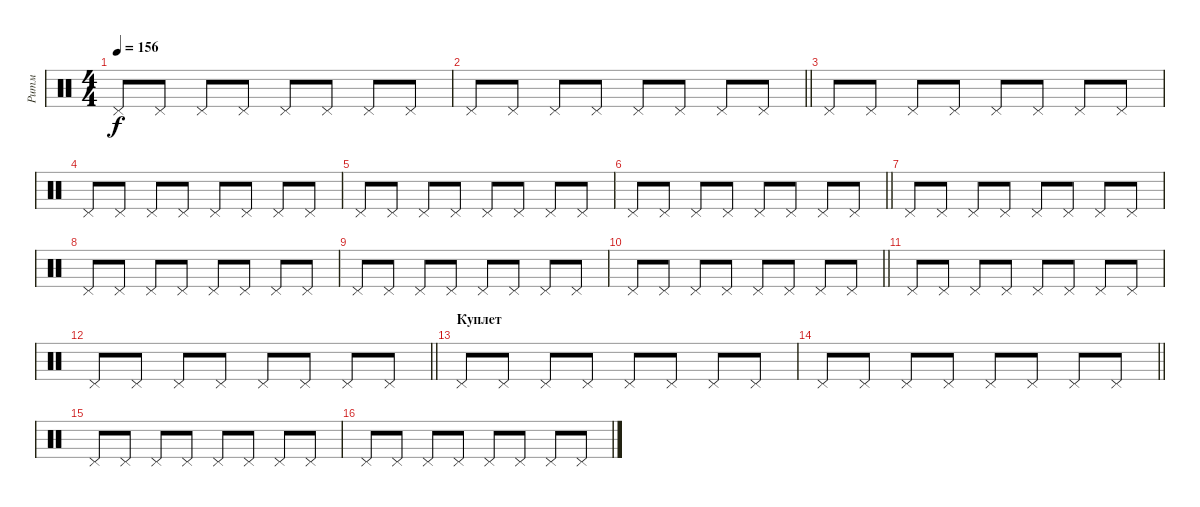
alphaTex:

\track ("Ритм" "Ритм") {instrument percussion}
\staff {score}
\articulation defaults
\ts (4 4)
\tempo 156
\clef neutral
\ks c "Pedal Hi-Hat (hit)".8{dy f} "Pedal Hi-Hat (hit)".8 "Pedal Hi-Hat (hit)".8 "Pedal Hi-Hat (hit)".8 "Pedal Hi-Hat (hit)".8 "Pedal Hi-Hat (hit)".8 "Pedal Hi-Hat (hit)".8 "Pedal Hi-Hat (hit)".8
|
\barLineRight lightlight "Pedal Hi-Hat (hit)".8 "Pedal Hi-Hat (hit)".8 "Pedal Hi-Hat (hit)".8 "Pedal Hi-Hat (hit)".8 "Pedal Hi-Hat (hit)".8 "Pedal Hi-Hat (hit)".8 "Pedal Hi-Hat (hit)".8 "Pedal Hi-Hat (hit)".8
|
"Pedal Hi-Hat (hit)".8 "Pedal Hi-Hat (hit)".8 "Pedal Hi-Hat (hit)".8 "Pedal Hi-Hat (hit)".8 "Pedal Hi-Hat (hit)".8 "Pedal Hi-Hat (hit)".8 "Pedal Hi-Hat (hit)".8 "Pedal Hi-Hat (hit)".8 |
"Pedal Hi-Hat (hit)".8 "Pedal Hi-Hat (hit)".8 "Pedal Hi-Hat (hit)".8 "Pedal Hi-Hat (hit)".8 "Pedal Hi-Hat (hit)".8 "Pedal Hi-Hat (hit)".8 "Pedal Hi-Hat (hit)".8 "Pedal Hi-Hat (hit)".8 |
"Pedal Hi-Hat (hit)".8 "Pedal Hi-Hat (hit)".8 "Pedal Hi-Hat (hit)".8 "Pedal Hi-Hat (hit)".8 "Pedal Hi-Hat (hit)".8 "Pedal Hi-Hat (hit)".8 "Pedal Hi-Hat (hit)".8 "Pedal Hi-Hat (hit)".8 |
\barLineRight lightlight "Pedal Hi-Hat (hit)".8 "Pedal Hi-Hat (hit)".8 "Pedal Hi-Hat (hit)".8 "Pedal Hi-Hat (hit)".8 "Pedal Hi-Hat (hit)".8 "Pedal Hi-Hat (hit)".8 "Pedal Hi-Hat (hit)".8 "Pedal Hi-Hat (hit)".8
|
"Pedal Hi-Hat (hit)".8 "Pedal Hi-Hat (hit)".8 "Pedal Hi-Hat (hit)".8 "Pedal Hi-Hat (hit)".8 "Pedal Hi-Hat (hit)".8 "Pedal Hi-Hat (hit)".8 "Pedal Hi-Hat (hit)".8 "Pedal Hi-Hat (hit)".8 |
"Pedal Hi-Hat (hit)".8 "Pedal Hi-Hat (hit)".8 "Pedal Hi-Hat (hit)".8 "Pedal Hi-Hat (hit)".8 "Pedal Hi-Hat (hit)".8 "Pedal Hi-Hat (hit)".8 "Pedal Hi-Hat (hit)".8 "Pedal Hi-Hat (hit)".8 |
"Pedal Hi-Hat (hit)".8 "Pedal Hi-Hat (hit)".8 "Pedal Hi-Hat (hit)".8 "Pedal Hi-Hat (hit)".8 "Pedal Hi-Hat (hit)".8 "Pedal Hi-Hat (hit)".8 "Pedal Hi-Hat (hit)".8 "Pedal Hi-Hat (hit)".8 |
\barLineRight lightlight "Pedal Hi-Hat (hit)".8 "Pedal Hi-Hat (hit)".8 "Pedal Hi-Hat (hit)".8 "Pedal Hi-Hat (hit)".8 "Pedal Hi-Hat (hit)".8 "Pedal Hi-Hat (hit)".8 "Pedal Hi-Hat (hit)".8 "Pedal Hi-Hat (hit)".8
|
"Pedal Hi-Hat (hit)".8 "Pedal Hi-Hat (hit)".8 "Pedal Hi-Hat (hit)".8 "Pedal Hi-Hat (hit)".8 "Pedal Hi-Hat (hit)".8 "Pedal Hi-Hat (hit)".8 "Pedal Hi-Hat (hit)".8 "Pedal Hi-Hat (hit)".8 |
\barLineRight lightlight "Pedal Hi-Hat (hit)".8 "Pedal Hi-Hat (hit)".8 "Pedal Hi-Hat (hit)".8 "Pedal Hi-Hat (hit)".8 "Pedal Hi-Hat (hit)".8 "Pedal Hi-Hat (hit)".8 "Pedal Hi-Hat (hit)".8 "Pedal Hi-Hat (hit)".8
|
\section ("" "Куплет")
"Pedal Hi-Hat (hit)".8 "Pedal Hi-Hat (hit)".8 "Pedal Hi-Hat (hit)".8 "Pedal Hi-Hat (hit)".8 "Pedal Hi-Hat (hit)".8 "Pedal Hi-Hat (hit)".8 "Pedal Hi-Hat (hit)".8 "Pedal Hi-Hat (hit)".8 |
\barLineRight lightlight "Pedal Hi-Hat (hit)".8 "Pedal Hi-Hat (hit)".8 "Pedal Hi-Hat (hit)".8 "Pedal Hi-Hat (hit)".8 "Pedal Hi-Hat (hit)".8 "Pedal Hi-Hat (hit)".8 "Pedal Hi-Hat (hit)".8 "Pedal Hi-Hat (hit)".8
|
"Pedal Hi-Hat (hit)".8 "Pedal Hi-Hat (hit)".8 "Pedal Hi-Hat (hit)".8 "Pedal Hi-Hat (hit)".8 "Pedal Hi-Hat (hit)".8 "Pedal Hi-Hat (hit)".8 "Pedal Hi-Hat (hit)".8 "Pedal Hi-Hat (hit)".8 |
"Pedal Hi-Hat (hit)".8 "Pedal Hi-Hat (hit)".8 "Pedal Hi-Hat (hit)".8 "Pedal Hi-Hat (hit)".8 "Pedal Hi-Hat (hit)".8 "Pedal Hi-Hat (hit)".8 "Pedal Hi-Hat (hit)".8 "Pedal Hi-Hat (hit)".8
